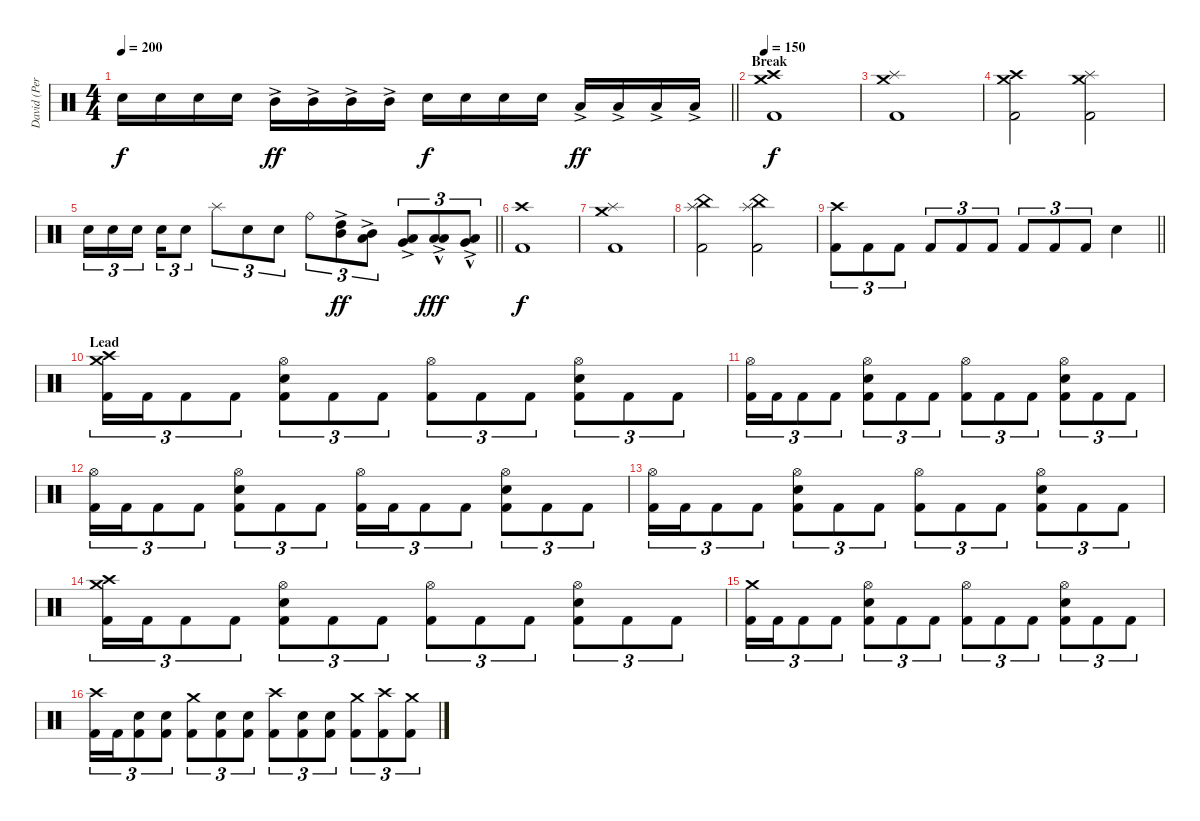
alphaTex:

\track ("David (Percussion)" "David (Per") {instrument percussion}
\staff {score}
\articulation defaults
\ts (4 4)
\tempo 200
\clef neutral
\barLineRight lightlight
\ks c "Electric Snare (hit)".16{dy f} "Electric Snare (hit)".16 "Electric Snare (hit)".16 "Electric Snare (hit)".16 "Mid Tom (hit)"{ac}.16{dy ff} "Mid Tom (hit)"{ac}.16 "Mid Tom (hit)"{ac}.16 "Mid Tom (hit)"{ac}.16 "Electric Snare (hit)".16{dy f} "Electric Snare (hit)".16 "Electric Snare (hit)".16 "Electric Snare (hit)".16 "Low Tom (hit)"{ac}.16{dy ff} "Low Tom (hit)"{ac}.16 "Low Tom (hit)"{ac}.16 "Low Tom (hit)"{ac}.16
|
\section ("" "Break")
\tempo 150
("Crash high (hit)" "Crash medium (hit)" "Kick (hit) 2").1{dy f} |
("Crash medium (hit)" "Splash (hit)" "Kick (hit) 2").1 |
("Crash high (hit)" "Crash medium (hit)" "Kick (hit) 2").2 ("Crash medium (hit)" "Splash (hit)" "Kick (hit) 2").2 |
\barLineRight lightlight "Electric Snare (hit)".16{tu (3 2)} "Electric Snare (hit)".16{tu (3 2)} "Electric Snare (hit)".16{tu (3 2) beam splitsecondary} "Electric Snare (hit)".16{tu (3 2)} "Electric Snare (hit)".8{tu (3 2)} "Splash (hit)".8{tu (3 2)} "Electric Snare (hit)".8{tu (3 2)} "Electric Snare (hit)".8{tu (3 2)} "Ride (bell)".8{tu (3 2)}
("High Tom (hit)"{ac} "Mid Tom (hit)"{ac}).8{tu (3 2) dy ff} ("Mid Tom (hit)"{ac} "Low Tom (hit)"{ac}).8{tu (3 2)} ("Low Tom (hit)"{ac} "Very Low Tom (hit)"{ac}).8{tu (3 2)} ("Low Tom (hit)"{ac} "Low Tom (hit)"{hac}).8{tu (3 2) dy fff} ("Very Low Tom (hit)"{ac} "Low Floor Tom (hit)"{hac}).8{tu (3 2)} |
("Crash high (hit)" "Kick (hit) 2").1{dy f} |
("Crash medium (hit)" "Splash (hit)" "Kick (hit) 2").1 |
("China (hit)" "Splash (hit)" "Kick (hit) 2").2 ("China (hit)" "Splash (hit)" "Kick (hit) 2").2 |
\barLineRight lightlight
("Crash high (hit)" "Kick (hit) 2").8{tu (3 2)} "Kick (hit) 2".8{tu (3 2)} "Kick (hit) 2".8{tu (3 2)} "Kick (hit) 2".8{tu (3 2)} "Kick (hit) 2".8{tu (3 2)} "Kick (hit) 2".8{tu (3 2)} "Kick (hit) 2".8{tu (3 2)} "Kick (hit) 2".8{tu (3 2)} "Kick (hit) 2".8{tu (3 2)} "Electric Snare (hit)".4 |
\section ("" "Lead")
("Crash medium (hit)" "Crash high (hit)" "Kick (hit) 2").16{tu (3 2)} "Kick (hit) 2".16{tu (3 2)} "Kick (hit) 2".8{tu (3 2)} "Kick (hit) 2".8{tu (3 2)} ("Hi-Hat (open)" "Electric Snare (hit)" "Kick (hit) 2").8{tu (3 2)} "Kick (hit) 2".8{tu (3 2)} "Kick (hit) 2".8{tu (3 2)} ("Hi-Hat (open)" "Kick (hit) 2").8{tu (3 2)} "Kick (hit) 2".8{tu (3 2)} "Kick (hit) 2".8{tu (3 2)} ("Hi-Hat (open)" "Electric Snare (hit)" "Kick (hit) 2").8{tu (3 2)} "Kick (hit) 2".8{tu (3 2)} "Kick (hit) 2".8{tu (3 2)} |
("Hi-Hat (open)" "Kick (hit) 2").16{tu (3 2)} "Kick (hit) 2".16{tu (3 2)} "Kick (hit) 2".8{tu (3 2)} "Kick (hit) 2".8{tu (3 2)} ("Hi-Hat (open)" "Electric Snare (hit)" "Kick (hit) 2").8{tu (3 2)} "Kick (hit) 2".8{tu (3 2)} "Kick (hit) 2".8{tu (3 2)} ("Hi-Hat (open)" "Kick (hit) 2").8{tu (3 2)} "Kick (hit) 2".8{tu (3 2)} "Kick (hit) 2".8{tu (3 2)} ("Hi-Hat (open)" "Electric Snare (hit)" "Kick (hit) 2").8{tu (3 2)} "Kick (hit) 2".8{tu (3 2)} "Kick (hit) 2".8{tu (3 2)} |
("Hi-Hat (open)" "Kick (hit) 2").16{tu (3 2)} "Kick (hit) 2".16{tu (3 2)} "Kick (hit) 2".8{tu (3 2)} "Kick (hit) 2".8{tu (3 2)} ("Hi-Hat (open)" "Electric Snare (hit)" "Kick (hit) 2").8{tu (3 2)} "Kick (hit) 2".8{tu (3 2)} "Kick (hit) 2".8{tu (3 2)} ("Hi-Hat (open)" "Kick (hit) 2").16{tu (3 2)} "Kick (hit) 2".16{tu (3 2)} "Kick (hit) 2".8{tu (3 2)} "Kick (hit) 2".8{tu (3 2)} ("Hi-Hat (open)" "Electric Snare (hit)" "Kick (hit) 2").8{tu (3 2)} "Kick (hit) 2".8{tu (3 2)} "Kick (hit) 2".8{tu (3 2)} |
("Hi-Hat (open)" "Kick (hit) 2").16{tu (3 2)} "Kick (hit) 2".16{tu (3 2)} "Kick (hit) 2".8{tu (3 2)} "Kick (hit) 2".8{tu (3 2)} ("Hi-Hat (open)" "Electric Snare (hit)" "Kick (hit) 2").8{tu (3 2)} "Kick (hit) 2".8{tu (3 2)} "Kick (hit) 2".8{tu (3 2)} ("Hi-Hat (open)" "Kick (hit) 2").8{tu (3 2)} "Kick (hit) 2".8{tu (3 2)} "Kick (hit) 2".8{tu (3 2)} ("Hi-Hat (open)" "Electric Snare (hit)" "Kick (hit) 2").8{tu (3 2)} "Kick (hit) 2".8{tu (3 2)} "Kick (hit) 2".8{tu (3 2)} |
("Crash medium (hit)" "Crash high (hit)" "Kick (hit) 2").16{tu (3 2)} "Kick (hit) 2".16{tu (3 2)} "Kick (hit) 2".8{tu (3 2)} "Kick (hit) 2".8{tu (3 2)} ("Hi-Hat (open)" "Electric Snare (hit)" "Kick (hit) 2").8{tu (3 2)} "Kick (hit) 2".8{tu (3 2)} "Kick (hit) 2".8{tu (3 2)} ("Hi-Hat (open)" "Kick (hit) 2").8{tu (3 2)} "Kick (hit) 2".8{tu (3 2)} "Kick (hit) 2".8{tu (3 2)} ("Hi-Hat (open)" "Electric Snare (hit)" "Kick (hit) 2").8{tu (3 2)} "Kick (hit) 2".8{tu (3 2)} "Kick (hit) 2".8{tu (3 2)} |
("Crash medium (hit)" "Kick (hit) 2").16{tu (3 2)} "Kick (hit) 2".16{tu (3 2)} "Kick (hit) 2".8{tu (3 2)} "Kick (hit) 2".8{tu (3 2)} ("Hi-Hat (open)" "Electric Snare (hit)" "Kick (hit) 2").8{tu (3 2)} "Kick (hit) 2".8{tu (3 2)} "Kick (hit) 2".8{tu (3 2)} ("Hi-Hat (open)" "Kick (hit) 2").8{tu (3 2)} "Kick (hit) 2".8{tu (3 2)} "Kick (hit) 2".8{tu (3 2)} ("Hi-Hat (open)" "Electric Snare (hit)" "Kick (hit) 2").8{tu (3 2)} "Kick (hit) 2".8{tu (3 2)} "Kick (hit) 2".8{tu (3 2)} |
("Crash high (hit)" "Kick (hit) 2").16{tu (3 2)} "Kick (hit) 2".16{tu (3 2)} ("Electric Snare (hit)" "Kick (hit) 2").8{tu (3 2)} ("Electric Snare (hit)" "Kick (hit) 2").8{tu (3 2)} ("Crash medium (hit)" "Kick (hit) 2").8{tu (3 2)} ("Electric Snare (hit)" "Kick (hit) 2").8{tu (3 2)} ("Electric Snare (hit)" "Kick (hit) 2").8{tu (3 2)} ("Crash high (hit)" "Kick (hit) 2").8{tu (3 2)} ("Electric Snare (hit)" "Kick (hit) 2").8{tu (3 2)} ("Electric Snare (hit)" "Kick (hit) 2").8{tu (3 2)} ("Crash medium (hit)" "Kick (hit) 2").8{tu (3 2)} ("Crash high (hit)" "Kick (hit) 2").8{tu (3 2)} ("Crash medium (hit)" "Kick (hit) 2").8{tu (3 2)}
